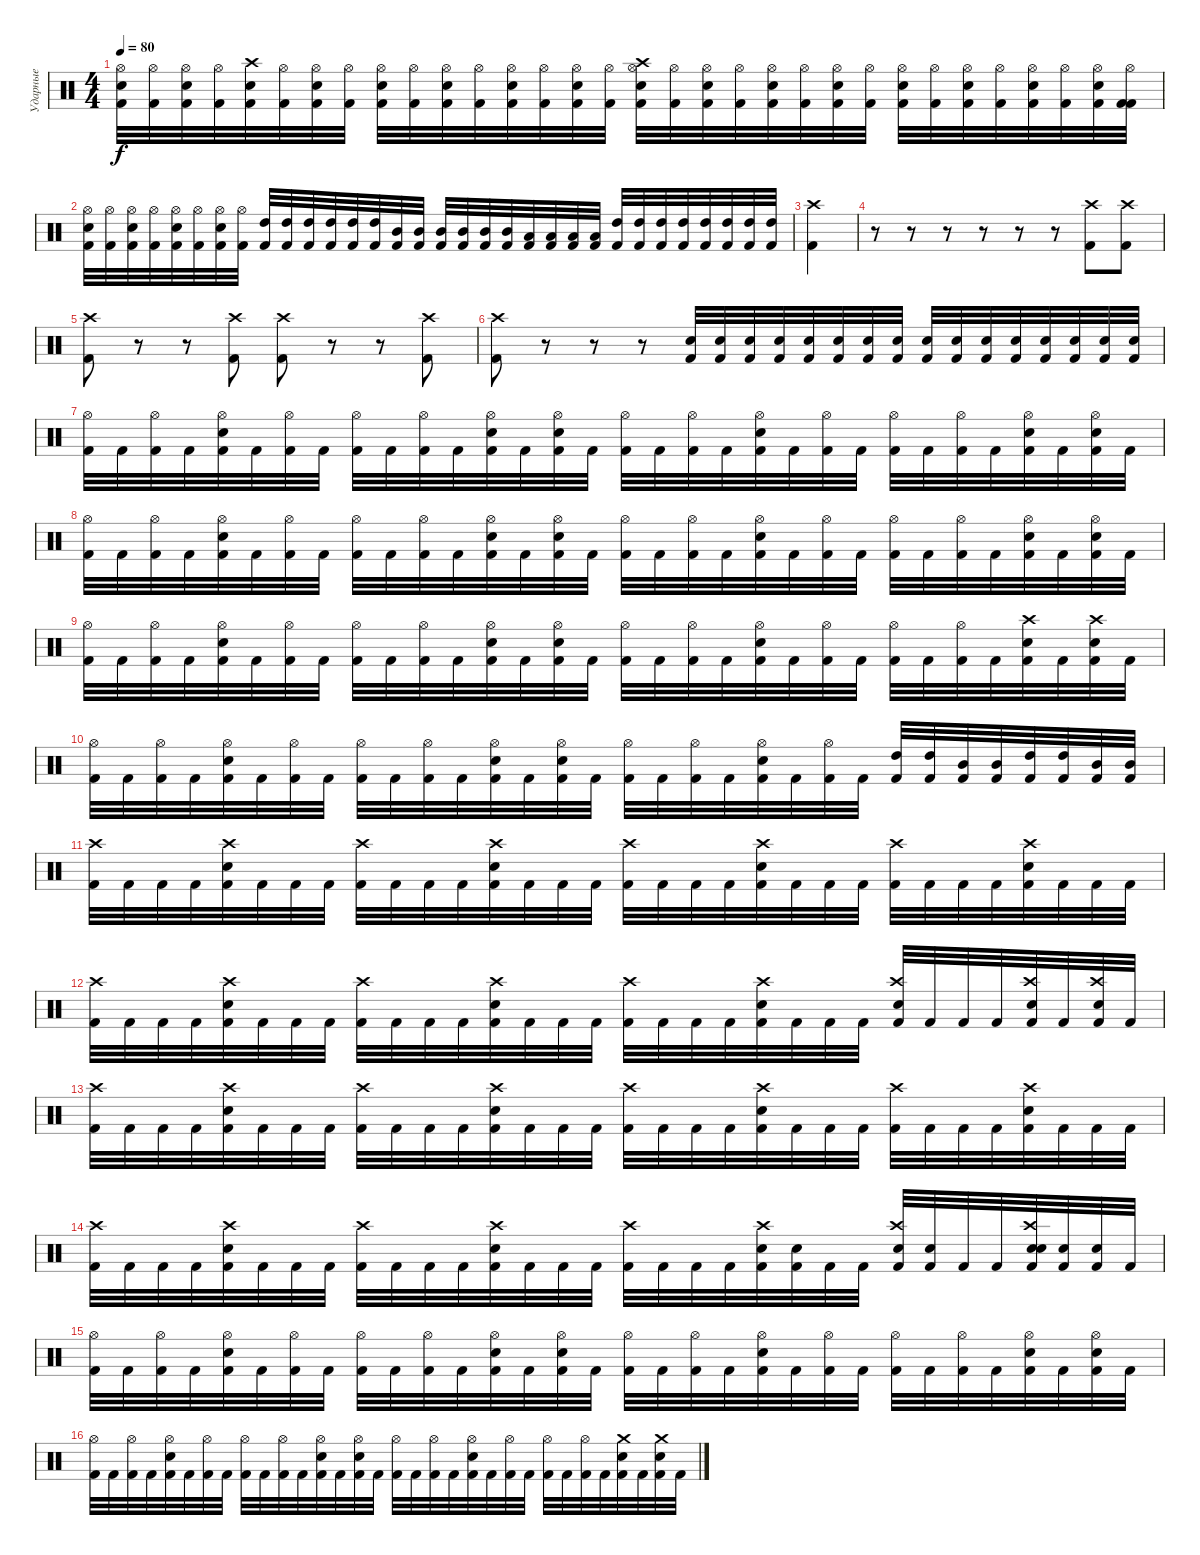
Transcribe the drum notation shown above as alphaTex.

\track ("Ударные" "Ударные") {instrument percussion}
\staff {score}
\articulation defaults
\ts (4 4)
\tempo 80
\clef neutral
\ks c
("Hi-Hat (open)" "Electric Snare (hit)" "Kick (hit) 2").32{dy f} ("Hi-Hat (open)" "Kick (hit) 2").32 ("Hi-Hat (open)" "Electric Snare (hit)" "Kick (hit) 2").32 ("Hi-Hat (open)" "Kick (hit) 2").32 ("Crash high (hit)" "Electric Snare (hit)" "Kick (hit) 2").32 ("Hi-Hat (open)" "Kick (hit) 2").32 ("Hi-Hat (open)" "Electric Snare (hit)" "Kick (hit) 2").32 ("Hi-Hat (open)" "Kick (hit) 2").32 ("Hi-Hat (open)" "Electric Snare (hit)" "Kick (hit) 2").32 ("Hi-Hat (open)" "Kick (hit) 2").32 ("Hi-Hat (open)" "Electric Snare (hit)" "Kick (hit) 2").32 ("Hi-Hat (open)" "Kick (hit) 2").32 ("Hi-Hat (open)" "Electric Snare (hit)" "Kick (hit) 2").32 ("Hi-Hat (open)" "Kick (hit) 2").32 ("Hi-Hat (open)" "Electric Snare (hit)" "Kick (hit) 2").32 ("Hi-Hat (open)" "Kick (hit) 2").32 ("Hi-Hat (open)" "Crash high (hit)" "Electric Snare (hit)" "Kick (hit) 2").32 ("Hi-Hat (open)" "Kick (hit) 2").32 ("Hi-Hat (open)" "Electric Snare (hit)" "Kick (hit) 2").32 ("Hi-Hat (open)" "Kick (hit) 2").32 ("Hi-Hat (open)" "Electric Snare (hit)" "Kick (hit) 2").32 ("Hi-Hat (open)" "Kick (hit) 2").32 ("Hi-Hat (open)" "Electric Snare (hit)" "Kick (hit) 2").32 ("Hi-Hat (open)" "Kick (hit) 2").32 ("Hi-Hat (open)" "Electric Snare (hit)" "Kick (hit) 2").32 ("Hi-Hat (open)" "Kick (hit) 2").32 ("Hi-Hat (open)" "Electric Snare (hit)" "Kick (hit) 2").32 ("Hi-Hat (open)" "Kick (hit) 2").32 ("Hi-Hat (open)" "Electric Snare (hit)" "Kick (hit) 2").32 ("Hi-Hat (open)" "Kick (hit) 2").32 ("Hi-Hat (open)" "Electric Snare (hit)" "Kick (hit) 2").32 ("Hi-Hat (open)" "Kick (hit) 2" "Kick (hit) 2").32 |
("Hi-Hat (open)" "Electric Snare (hit)" "Kick (hit) 2").32 ("Hi-Hat (open)" "Kick (hit) 2").32 ("Hi-Hat (open)" "Electric Snare (hit)" "Kick (hit) 2").32 ("Hi-Hat (open)" "Kick (hit) 2").32 ("Hi-Hat (open)" "Electric Snare (hit)" "Kick (hit) 2").32 ("Hi-Hat (open)" "Kick (hit) 2").32 ("Hi-Hat (open)" "Electric Snare (hit)" "Kick (hit) 2").32 ("Hi-Hat (open)" "Kick (hit) 2").32 ("High Tom (hit)" "Kick (hit) 2").32 ("High Tom (hit)" "Kick (hit) 2").32 ("High Tom (hit)" "Kick (hit) 2").32 ("High Tom (hit)" "Kick (hit) 2").32 ("High Tom (hit)" "Kick (hit) 2").32 ("High Tom (hit)" "Kick (hit) 2").32 ("Mid Tom (hit)" "Kick (hit) 2").32 ("Mid Tom (hit)" "Kick (hit) 2").32 ("Mid Tom (hit)" "Kick (hit) 2").32 ("Mid Tom (hit)" "Kick (hit) 2").32 ("Mid Tom (hit)" "Kick (hit) 2").32 ("Mid Tom (hit)" "Kick (hit) 2").32 ("Low Tom (hit)" "Kick (hit) 2").32 ("Low Tom (hit)" "Kick (hit) 2").32 ("Low Tom (hit)" "Kick (hit) 2").32 ("Low Tom (hit)" "Kick (hit) 2").32 ("High Tom (hit)" "Kick (hit) 2").32 ("High Tom (hit)" "Kick (hit) 2").32 ("High Tom (hit)" "Kick (hit) 2").32 ("High Tom (hit)" "Kick (hit) 2").32 ("High Tom (hit)" "Kick (hit) 2").32 ("High Tom (hit)" "Kick (hit) 2").32 ("High Tom (hit)" "Kick (hit) 2").32 ("High Tom (hit)" "Kick (hit) 2").32 |
("Crash high (hit)" "Kick (hit) 2").4 |
r.8 r.8 r.8 r.8 r.8 r.8 ("Crash high (hit)" "Kick (hit) 2").8 ("Kick (hit) 2" "Crash high (hit)").8 |
("Crash high (hit)" "Kick (hit) 2").8 r.8 r.8 ("Crash high (hit)" "Kick (hit) 2").8 ("Crash high (hit)" "Kick (hit) 2").8 r.8 r.8 ("Kick (hit) 2" "Crash high (hit)").8 |
("Crash high (hit)" "Kick (hit) 2").8 r.8 r.8 r.8 ("Snare (hit) 2" "Kick (hit) 2").32 ("Snare (hit) 2" "Kick (hit) 2").32 ("Snare (hit) 2" "Kick (hit) 2").32 ("Snare (hit) 2" "Kick (hit) 2").32 ("Snare (hit) 2" "Kick (hit) 2").32 ("Snare (hit) 2" "Kick (hit) 2").32 ("Snare (hit) 2" "Kick (hit) 2").32 ("Snare (hit) 2" "Kick (hit) 2").32 ("Snare (hit) 2" "Kick (hit) 2").32 ("Snare (hit) 2" "Kick (hit) 2").32 ("Snare (hit) 2" "Kick (hit) 2").32 ("Snare (hit) 2" "Kick (hit) 2").32 ("Snare (hit) 2" "Kick (hit) 2").32 ("Snare (hit) 2" "Kick (hit) 2").32 ("Snare (hit) 2" "Kick (hit) 2").32 ("Snare (hit) 2" "Kick (hit) 2").32 |
("Kick (hit) 2" "Hi-Hat (open)").32 "Kick (hit) 2".32 ("Kick (hit) 2" "Hi-Hat (open)").32 "Kick (hit) 2".32 ("Kick (hit) 2" "Snare (hit) 2" "Hi-Hat (open)").32 "Kick (hit) 2".32 ("Kick (hit) 2" "Hi-Hat (open)").32 "Kick (hit) 2".32 ("Kick (hit) 2" "Hi-Hat (open)").32 "Kick (hit) 2".32 ("Kick (hit) 2" "Hi-Hat (open)").32 "Kick (hit) 2".32 ("Kick (hit) 2" "Snare (hit) 2" "Hi-Hat (open)").32 "Kick (hit) 2".32 ("Kick (hit) 2" "Snare (hit) 2" "Hi-Hat (open)").32 "Kick (hit) 2".32 ("Kick (hit) 2" "Hi-Hat (open)").32 "Kick (hit) 2".32 ("Kick (hit) 2" "Hi-Hat (open)").32 "Kick (hit) 2".32 ("Kick (hit) 2" "Snare (hit) 2" "Hi-Hat (open)").32 "Kick (hit) 2".32 ("Kick (hit) 2" "Hi-Hat (open)").32 "Kick (hit) 2".32 ("Kick (hit) 2" "Hi-Hat (open)").32 "Kick (hit) 2".32 ("Kick (hit) 2" "Hi-Hat (open)").32 "Kick (hit) 2".32 ("Kick (hit) 2" "Hi-Hat (open)" "Snare (hit) 2").32 "Kick (hit) 2".32 ("Kick (hit) 2" "Hi-Hat (open)" "Snare (hit) 2").32 "Kick (hit) 2".32 |
("Kick (hit) 2" "Hi-Hat (open)").32 "Kick (hit) 2".32 ("Kick (hit) 2" "Hi-Hat (open)").32 "Kick (hit) 2".32 ("Kick (hit) 2" "Snare (hit) 2" "Hi-Hat (open)").32 "Kick (hit) 2".32 ("Kick (hit) 2" "Hi-Hat (open)").32 "Kick (hit) 2".32 ("Kick (hit) 2" "Hi-Hat (open)").32 "Kick (hit) 2".32 ("Kick (hit) 2" "Hi-Hat (open)").32 "Kick (hit) 2".32 ("Kick (hit) 2" "Snare (hit) 2" "Hi-Hat (open)").32 "Kick (hit) 2".32 ("Kick (hit) 2" "Snare (hit) 2" "Hi-Hat (open)").32 "Kick (hit) 2".32 ("Kick (hit) 2" "Hi-Hat (open)").32 "Kick (hit) 2".32 ("Kick (hit) 2" "Hi-Hat (open)").32 "Kick (hit) 2".32 ("Kick (hit) 2" "Snare (hit) 2" "Hi-Hat (open)").32 "Kick (hit) 2".32 ("Kick (hit) 2" "Hi-Hat (open)").32 "Kick (hit) 2".32 ("Kick (hit) 2" "Hi-Hat (open)").32 "Kick (hit) 2".32 ("Kick (hit) 2" "Hi-Hat (open)").32 "Kick (hit) 2".32 ("Kick (hit) 2" "Hi-Hat (open)" "Snare (hit) 2").32 "Kick (hit) 2".32 ("Kick (hit) 2" "Hi-Hat (open)" "Snare (hit) 2").32 "Kick (hit) 2".32 |
("Kick (hit) 2" "Hi-Hat (open)").32 "Kick (hit) 2".32 ("Kick (hit) 2" "Hi-Hat (open)").32 "Kick (hit) 2".32 ("Kick (hit) 2" "Snare (hit) 2" "Hi-Hat (open)").32 "Kick (hit) 2".32 ("Kick (hit) 2" "Hi-Hat (open)").32 "Kick (hit) 2".32 ("Kick (hit) 2" "Hi-Hat (open)").32 "Kick (hit) 2".32 ("Kick (hit) 2" "Hi-Hat (open)").32 "Kick (hit) 2".32 ("Kick (hit) 2" "Snare (hit) 2" "Hi-Hat (open)").32 "Kick (hit) 2".32 ("Kick (hit) 2" "Snare (hit) 2" "Hi-Hat (open)").32 "Kick (hit) 2".32 ("Kick (hit) 2" "Hi-Hat (open)").32 "Kick (hit) 2".32 ("Kick (hit) 2" "Hi-Hat (open)").32 "Kick (hit) 2".32 ("Kick (hit) 2" "Snare (hit) 2" "Hi-Hat (open)").32 "Kick (hit) 2".32 ("Kick (hit) 2" "Hi-Hat (open)").32 "Kick (hit) 2".32 ("Kick (hit) 2" "Hi-Hat (open)").32 "Kick (hit) 2".32 ("Kick (hit) 2" "Hi-Hat (open)").32 "Kick (hit) 2".32 ("Kick (hit) 2" "Crash high (hit)" "Snare (hit) 2").32 "Kick (hit) 2".32 ("Kick (hit) 2" "Crash high (hit)" "Snare (hit) 2").32 "Kick (hit) 2".32 |
("Kick (hit) 2" "Hi-Hat (open)").32 "Kick (hit) 2".32 ("Kick (hit) 2" "Hi-Hat (open)").32 "Kick (hit) 2".32 ("Kick (hit) 2" "Snare (hit) 2" "Hi-Hat (open)").32 "Kick (hit) 2".32 ("Kick (hit) 2" "Hi-Hat (open)").32 "Kick (hit) 2".32 ("Kick (hit) 2" "Hi-Hat (open)").32 "Kick (hit) 2".32 ("Kick (hit) 2" "Hi-Hat (open)").32 "Kick (hit) 2".32 ("Kick (hit) 2" "Snare (hit) 2" "Hi-Hat (open)").32 "Kick (hit) 2".32 ("Kick (hit) 2" "Snare (hit) 2" "Hi-Hat (open)").32 "Kick (hit) 2".32 ("Kick (hit) 2" "Hi-Hat (open)").32 "Kick (hit) 2".32 ("Kick (hit) 2" "Hi-Hat (open)").32 "Kick (hit) 2".32 ("Kick (hit) 2" "Snare (hit) 2" "Hi-Hat (open)").32 "Kick (hit) 2".32 ("Kick (hit) 2" "Hi-Hat (open)").32 "Kick (hit) 2".32 ("High Tom (hit)" "Kick (hit) 2").32 ("High Tom (hit)" "Kick (hit) 2").32 ("Mid Tom (hit)" "Kick (hit) 2").32 ("Mid Tom (hit)" "Kick (hit) 2").32 ("High Tom (hit)" "Kick (hit) 2").32 ("High Tom (hit)" "Kick (hit) 2").32 ("Mid Tom (hit)" "Kick (hit) 2").32 ("Mid Tom (hit)" "Kick (hit) 2").32 |
("Kick (hit) 2" "Crash high (hit)").32 "Kick (hit) 2".32 "Kick (hit) 2".32 "Kick (hit) 2".32 ("Kick (hit) 2" "Snare (hit) 2" "Crash high (hit)").32 "Kick (hit) 2".32 "Kick (hit) 2".32 "Kick (hit) 2".32 ("Kick (hit) 2" "Crash high (hit)").32 "Kick (hit) 2".32 "Kick (hit) 2".32 "Kick (hit) 2".32 ("Kick (hit) 2" "Snare (hit) 2" "Crash high (hit)").32 "Kick (hit) 2".32 "Kick (hit) 2".32 "Kick (hit) 2".32 ("Kick (hit) 2" "Crash high (hit)").32 "Kick (hit) 2".32 "Kick (hit) 2".32 "Kick (hit) 2".32 ("Kick (hit) 2" "Snare (hit) 2" "Crash high (hit)").32 "Kick (hit) 2".32 "Kick (hit) 2".32 "Kick (hit) 2".32 ("Kick (hit) 2" "Crash high (hit)").32 "Kick (hit) 2".32 "Kick (hit) 2".32 "Kick (hit) 2".32 ("Kick (hit) 2" "Crash high (hit)" "Snare (hit) 2").32 "Kick (hit) 2".32 "Kick (hit) 2".32 "Kick (hit) 2".32 |
("Kick (hit) 2" "Crash high (hit)").32 "Kick (hit) 2".32 "Kick (hit) 2".32 "Kick (hit) 2".32 ("Kick (hit) 2" "Snare (hit) 2" "Crash high (hit)").32 "Kick (hit) 2".32 "Kick (hit) 2".32 "Kick (hit) 2".32 ("Kick (hit) 2" "Crash high (hit)").32 "Kick (hit) 2".32 "Kick (hit) 2".32 "Kick (hit) 2".32 ("Kick (hit) 2" "Snare (hit) 2" "Crash high (hit)").32 "Kick (hit) 2".32 "Kick (hit) 2".32 "Kick (hit) 2".32 ("Kick (hit) 2" "Crash high (hit)").32 "Kick (hit) 2".32 "Kick (hit) 2".32 "Kick (hit) 2".32 ("Kick (hit) 2" "Snare (hit) 2" "Crash high (hit)").32 "Kick (hit) 2".32 "Kick (hit) 2".32 "Kick (hit) 2".32 ("Kick (hit) 2" "Crash high (hit)" "Snare (hit) 2").32 "Kick (hit) 2".32 "Kick (hit) 2".32 "Kick (hit) 2".32 ("Kick (hit) 2" "Crash high (hit)" "Snare (hit) 2").32 "Kick (hit) 2".32 ("Kick (hit) 2" "Crash high (hit)" "Snare (hit) 2").32 "Kick (hit) 2".32 |
("Kick (hit) 2" "Crash high (hit)").32 "Kick (hit) 2".32 "Kick (hit) 2".32 "Kick (hit) 2".32 ("Kick (hit) 2" "Snare (hit) 2" "Crash high (hit)").32 "Kick (hit) 2".32 "Kick (hit) 2".32 "Kick (hit) 2".32 ("Kick (hit) 2" "Crash high (hit)").32 "Kick (hit) 2".32 "Kick (hit) 2".32 "Kick (hit) 2".32 ("Kick (hit) 2" "Snare (hit) 2" "Crash high (hit)").32 "Kick (hit) 2".32 "Kick (hit) 2".32 "Kick (hit) 2".32 ("Kick (hit) 2" "Crash high (hit)").32 "Kick (hit) 2".32 "Kick (hit) 2".32 "Kick (hit) 2".32 ("Kick (hit) 2" "Snare (hit) 2" "Crash high (hit)").32 "Kick (hit) 2".32 "Kick (hit) 2".32 "Kick (hit) 2".32 ("Kick (hit) 2" "Crash high (hit)").32 "Kick (hit) 2".32 "Kick (hit) 2".32 "Kick (hit) 2".32 ("Kick (hit) 2" "Crash high (hit)" "Snare (hit) 2").32 "Kick (hit) 2".32 "Kick (hit) 2".32 "Kick (hit) 2".32 |
("Kick (hit) 2" "Crash high (hit)").32 "Kick (hit) 2".32 "Kick (hit) 2".32 "Kick (hit) 2".32 ("Kick (hit) 2" "Snare (hit) 2" "Crash high (hit)").32 "Kick (hit) 2".32 "Kick (hit) 2".32 "Kick (hit) 2".32 ("Kick (hit) 2" "Crash high (hit)").32 "Kick (hit) 2".32 "Kick (hit) 2".32 "Kick (hit) 2".32 ("Kick (hit) 2" "Snare (hit) 2" "Crash high (hit)").32 "Kick (hit) 2".32 "Kick (hit) 2".32 "Kick (hit) 2".32 ("Kick (hit) 2" "Crash high (hit)").32 "Kick (hit) 2".32 "Kick (hit) 2".32 "Kick (hit) 2".32 ("Kick (hit) 2" "Snare (hit) 2" "Crash high (hit)").32 ("Kick (hit) 2" "Snare (hit) 2").32 "Kick (hit) 2".32 "Kick (hit) 2".32 ("Kick (hit) 2" "Snare (hit) 2" "Crash high (hit)").32 ("Kick (hit) 2" "Snare (hit) 2").32 "Kick (hit) 2".32 "Kick (hit) 2".32 ("Kick (hit) 2" "Snare (hit) 2" "Crash high (hit)" "Snare (hit) 2").32 ("Kick (hit) 2" "Snare (hit) 2").32 ("Kick (hit) 2" "Snare (hit) 2").32 "Kick (hit) 2".32 |
("Kick (hit) 2" "Hi-Hat (open)").32 "Kick (hit) 2".32 ("Kick (hit) 2" "Hi-Hat (open)").32 "Kick (hit) 2".32 ("Kick (hit) 2" "Snare (hit) 2" "Hi-Hat (open)").32 "Kick (hit) 2".32 ("Kick (hit) 2" "Hi-Hat (open)").32 "Kick (hit) 2".32 ("Kick (hit) 2" "Hi-Hat (open)").32 "Kick (hit) 2".32 ("Kick (hit) 2" "Hi-Hat (open)").32 "Kick (hit) 2".32 ("Kick (hit) 2" "Snare (hit) 2" "Hi-Hat (open)").32 "Kick (hit) 2".32 ("Kick (hit) 2" "Snare (hit) 2" "Hi-Hat (open)").32 "Kick (hit) 2".32 ("Kick (hit) 2" "Hi-Hat (open)").32 "Kick (hit) 2".32 ("Kick (hit) 2" "Hi-Hat (open)").32 "Kick (hit) 2".32 ("Kick (hit) 2" "Snare (hit) 2" "Hi-Hat (open)").32 "Kick (hit) 2".32 ("Kick (hit) 2" "Hi-Hat (open)").32 "Kick (hit) 2".32 ("Kick (hit) 2" "Hi-Hat (open)").32 "Kick (hit) 2".32 ("Kick (hit) 2" "Hi-Hat (open)").32 "Kick (hit) 2".32 ("Kick (hit) 2" "Hi-Hat (open)" "Snare (hit) 2").32 "Kick (hit) 2".32 ("Kick (hit) 2" "Hi-Hat (open)" "Snare (hit) 2").32 "Kick (hit) 2".32 |
("Kick (hit) 2" "Hi-Hat (open)").32 "Kick (hit) 2".32 ("Kick (hit) 2" "Hi-Hat (open)").32 "Kick (hit) 2".32 ("Kick (hit) 2" "Snare (hit) 2" "Hi-Hat (open)").32 "Kick (hit) 2".32 ("Kick (hit) 2" "Hi-Hat (open)").32 "Kick (hit) 2".32 ("Kick (hit) 2" "Hi-Hat (open)").32 "Kick (hit) 2".32 ("Kick (hit) 2" "Hi-Hat (open)").32 "Kick (hit) 2".32 ("Kick (hit) 2" "Snare (hit) 2" "Hi-Hat (open)").32 "Kick (hit) 2".32 ("Kick (hit) 2" "Snare (hit) 2" "Hi-Hat (open)").32 "Kick (hit) 2".32 ("Kick (hit) 2" "Hi-Hat (open)").32 "Kick (hit) 2".32 ("Kick (hit) 2" "Hi-Hat (open)").32 "Kick (hit) 2".32 ("Kick (hit) 2" "Snare (hit) 2" "Hi-Hat (open)").32 "Kick (hit) 2".32 ("Kick (hit) 2" "Hi-Hat (open)").32 "Kick (hit) 2".32 ("Kick (hit) 2" "Hi-Hat (open)").32 "Kick (hit) 2".32 ("Kick (hit) 2" "Hi-Hat (open)").32 "Kick (hit) 2".32 ("Kick (hit) 2" "Crash medium (hit)" "Snare (hit) 2").32 "Kick (hit) 2".32 ("Kick (hit) 2" "Crash medium (hit)" "Snare (hit) 2").32 "Kick (hit) 2".32
